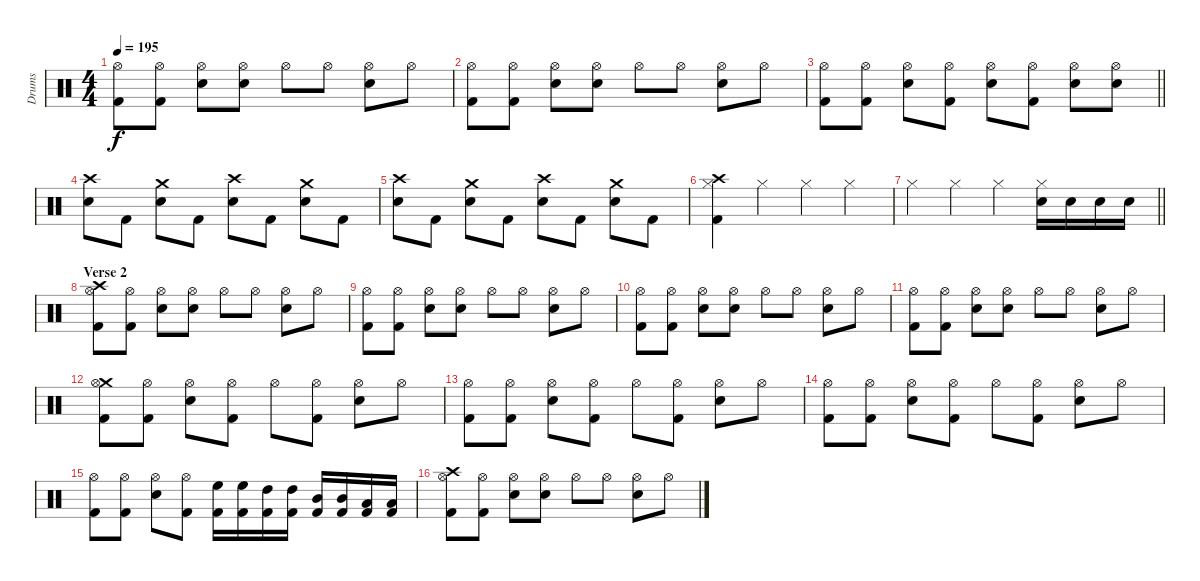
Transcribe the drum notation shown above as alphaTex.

\track ("Drums" "Drums") {instrument percussion}
\staff {score}
\articulation defaults
\ts (4 4)
\tempo 195
\clef neutral
\ks c
("Hi-Hat (open)" "Kick (hit) 2").8{dy f} ("Hi-Hat (open)" "Kick (hit) 2").8 ("Hi-Hat (open)" "Snare (hit) 2").8 ("Hi-Hat (open)" "Snare (hit) 2").8 "Hi-Hat (open)".8 "Hi-Hat (open)".8 ("Hi-Hat (open)" "Snare (hit) 2").8 "Hi-Hat (open)".8 |
("Hi-Hat (open)" "Kick (hit) 2").8 ("Hi-Hat (open)" "Kick (hit) 2").8 ("Hi-Hat (open)" "Snare (hit) 2").8 ("Hi-Hat (open)" "Snare (hit) 2").8 "Hi-Hat (open)".8 "Hi-Hat (open)".8 ("Hi-Hat (open)" "Snare (hit) 2").8 "Hi-Hat (open)".8 |
\barLineRight lightlight
("Hi-Hat (open)" "Kick (hit) 2").8 ("Hi-Hat (open)" "Kick (hit) 2").8 ("Hi-Hat (open)" "Snare (hit) 2").8 ("Hi-Hat (open)" "Kick (hit) 2").8 ("Hi-Hat (open)" "Snare (hit) 2").8 ("Hi-Hat (open)" "Kick (hit) 2").8 ("Hi-Hat (open)" "Snare (hit) 2").8 ("Hi-Hat (open)" "Snare (hit) 2").8 |
("Crash high (hit)" "Snare (hit) 2").8 "Kick (hit) 2".8 ("Crash medium (hit)" "Snare (hit) 2").8 "Kick (hit) 2".8 ("Crash high (hit)" "Snare (hit) 2").8 "Kick (hit) 2".8 ("Crash medium (hit)" "Snare (hit) 2").8 "Kick (hit) 2".8 |
("Crash high (hit)" "Snare (hit) 2").8 "Kick (hit) 2".8 ("Crash medium (hit)" "Snare (hit) 2").8 "Kick (hit) 2".8 ("Crash high (hit)" "Snare (hit) 2").8 "Kick (hit) 2".8 ("Crash medium (hit)" "Snare (hit) 2").8 "Kick (hit) 2".8 |
("Crash high (hit)" "Hi-Hat (closed)" "Kick (hit) 2").4 "Hi-Hat (closed)".4 "Hi-Hat (closed)".4 "Hi-Hat (closed)".4 |
\barLineRight lightlight "Hi-Hat (closed)".4 "Hi-Hat (closed)".4 "Hi-Hat (closed)".4
("Hi-Hat (closed)" "Snare (hit) 2").16 "Snare (hit) 2".16 "Snare (hit) 2".16 "Snare (hit) 2".16 |
\section ("" "Verse 2")
("Crash high (hit)" "Hi-Hat (open)" "Kick (hit) 2").8 ("Hi-Hat (open)" "Kick (hit) 2").8 ("Hi-Hat (open)" "Snare (hit) 2").8 ("Hi-Hat (open)" "Snare (hit) 2").8 "Hi-Hat (open)".8 "Hi-Hat (open)".8 ("Hi-Hat (open)" "Snare (hit) 2").8 "Hi-Hat (open)".8 |
("Hi-Hat (open)" "Kick (hit) 2").8 ("Hi-Hat (open)" "Kick (hit) 2").8 ("Hi-Hat (open)" "Snare (hit) 2").8 ("Hi-Hat (open)" "Snare (hit) 2").8 "Hi-Hat (open)".8 "Hi-Hat (open)".8 ("Hi-Hat (open)" "Snare (hit) 2").8 "Hi-Hat (open)".8 |
("Hi-Hat (open)" "Kick (hit) 2").8 ("Hi-Hat (open)" "Kick (hit) 2").8 ("Hi-Hat (open)" "Snare (hit) 2").8 ("Hi-Hat (open)" "Snare (hit) 2").8 "Hi-Hat (open)".8 "Hi-Hat (open)".8 ("Hi-Hat (open)" "Snare (hit) 2").8 "Hi-Hat (open)".8 |
("Hi-Hat (open)" "Kick (hit) 2").8 ("Hi-Hat (open)" "Kick (hit) 2").8 ("Hi-Hat (open)" "Snare (hit) 2").8 ("Hi-Hat (open)" "Snare (hit) 2").8 "Hi-Hat (open)".8 "Hi-Hat (open)".8 ("Hi-Hat (open)" "Snare (hit) 2").8 "Hi-Hat (open)".8 |
("Crash medium (hit)" "Hi-Hat (open)" "Kick (hit) 2").8 ("Hi-Hat (open)" "Kick (hit) 2").8 ("Hi-Hat (open)" "Snare (hit) 2").8 ("Hi-Hat (open)" "Kick (hit) 2").8 "Hi-Hat (open)".8 ("Hi-Hat (open)" "Kick (hit) 2").8 ("Hi-Hat (open)" "Snare (hit) 2").8 "Hi-Hat (open)".8 |
("Hi-Hat (open)" "Kick (hit) 2").8 ("Hi-Hat (open)" "Kick (hit) 2").8 ("Hi-Hat (open)" "Snare (hit) 2").8 ("Hi-Hat (open)" "Kick (hit) 2").8 "Hi-Hat (open)".8 ("Hi-Hat (open)" "Kick (hit) 2").8 ("Hi-Hat (open)" "Snare (hit) 2").8 "Hi-Hat (open)".8 |
("Hi-Hat (open)" "Kick (hit) 2").8 ("Hi-Hat (open)" "Kick (hit) 2").8 ("Hi-Hat (open)" "Snare (hit) 2").8 ("Hi-Hat (open)" "Kick (hit) 2").8 "Hi-Hat (open)".8 ("Hi-Hat (open)" "Kick (hit) 2").8 ("Hi-Hat (open)" "Snare (hit) 2").8 "Hi-Hat (open)".8 |
("Hi-Hat (open)" "Kick (hit) 2").8 ("Hi-Hat (open)" "Kick (hit) 2").8 ("Hi-Hat (open)" "Snare (hit) 2").8 ("Hi-Hat (open)" "Kick (hit) 2").8 ("High Floor Tom (hit)" "Kick (hit) 2").16 ("High Floor Tom (hit)" "Kick (hit) 2").16 ("High Tom (hit)" "Kick (hit) 2").16 ("High Tom (hit)" "Kick (hit) 2").16 ("Mid Tom (hit)" "Kick (hit) 2").16 ("Mid Tom (hit)" "Kick (hit) 2").16 ("Low Tom (hit)" "Kick (hit) 2").16 ("Low Tom (hit)" "Kick (hit) 2").16 |
("Crash high (hit)" "Hi-Hat (open)" "Kick (hit) 2").8 ("Hi-Hat (open)" "Kick (hit) 2").8 ("Hi-Hat (open)" "Snare (hit) 2").8 ("Hi-Hat (open)" "Snare (hit) 2").8 "Hi-Hat (open)".8 "Hi-Hat (open)".8 ("Hi-Hat (open)" "Snare (hit) 2").8 "Hi-Hat (open)".8
